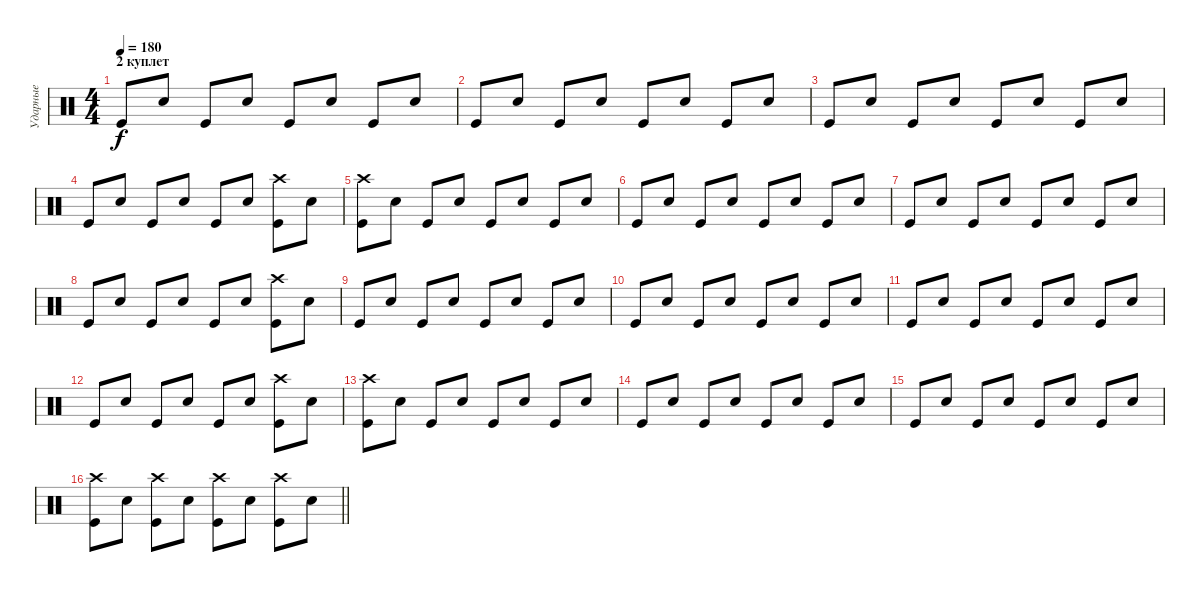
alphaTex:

\track ("Ударные" "Ударные") {instrument percussion}
\staff {score}
\articulation defaults
\ts (4 4)
\section ("" "2 куплет")
\tempo 180
\clef neutral
\ks c "Kick (hit)".8{dy f} "Snare (hit) 2".8 "Kick (hit)".8 "Snare (hit) 2".8 "Kick (hit)".8 "Snare (hit) 2".8 "Kick (hit)".8 "Snare (hit) 2".8
|
"Kick (hit)".8 "Snare (hit) 2".8 "Kick (hit)".8 "Snare (hit) 2".8 "Kick (hit)".8 "Snare (hit) 2".8 "Kick (hit)".8 "Snare (hit) 2".8 |
"Kick (hit)".8 "Snare (hit) 2".8 "Kick (hit)".8 "Snare (hit) 2".8 "Kick (hit)".8 "Snare (hit) 2".8 "Kick (hit)".8 "Snare (hit) 2".8 |
"Kick (hit)".8 "Snare (hit) 2".8 "Kick (hit)".8 "Snare (hit) 2".8 "Kick (hit)".8 "Snare (hit) 2".8 ("Crash high (hit)" "Kick (hit)").8 "Snare (hit) 2".8 |
("Crash high (hit)" "Kick (hit)").8 "Snare (hit) 2".8 "Kick (hit)".8 "Snare (hit) 2".8 "Kick (hit)".8 "Snare (hit) 2".8 "Kick (hit)".8 "Snare (hit) 2".8 |
"Kick (hit)".8 "Snare (hit) 2".8 "Kick (hit)".8 "Snare (hit) 2".8 "Kick (hit)".8 "Snare (hit) 2".8 "Kick (hit)".8 "Snare (hit) 2".8 |
"Kick (hit)".8 "Snare (hit) 2".8 "Kick (hit)".8 "Snare (hit) 2".8 "Kick (hit)".8 "Snare (hit) 2".8 "Kick (hit)".8 "Snare (hit) 2".8 |
"Kick (hit)".8 "Snare (hit) 2".8 "Kick (hit)".8 "Snare (hit) 2".8 "Kick (hit)".8 "Snare (hit) 2".8 ("Crash high (hit)" "Kick (hit)").8 "Snare (hit) 2".8 |
"Kick (hit)".8 "Snare (hit) 2".8 "Kick (hit)".8 "Snare (hit) 2".8 "Kick (hit)".8 "Snare (hit) 2".8 "Kick (hit)".8 "Snare (hit) 2".8 |
"Kick (hit)".8 "Snare (hit) 2".8 "Kick (hit)".8 "Snare (hit) 2".8 "Kick (hit)".8 "Snare (hit) 2".8 "Kick (hit)".8 "Snare (hit) 2".8 |
"Kick (hit)".8 "Snare (hit) 2".8 "Kick (hit)".8 "Snare (hit) 2".8 "Kick (hit)".8 "Snare (hit) 2".8 "Kick (hit)".8 "Snare (hit) 2".8 |
"Kick (hit)".8 "Snare (hit) 2".8 "Kick (hit)".8 "Snare (hit) 2".8 "Kick (hit)".8 "Snare (hit) 2".8 ("Crash high (hit)" "Kick (hit)").8 "Snare (hit) 2".8 |
("Crash high (hit)" "Kick (hit)").8 "Snare (hit) 2".8 "Kick (hit)".8 "Snare (hit) 2".8 "Kick (hit)".8 "Snare (hit) 2".8 "Kick (hit)".8 "Snare (hit) 2".8 |
"Kick (hit)".8 "Snare (hit) 2".8 "Kick (hit)".8 "Snare (hit) 2".8 "Kick (hit)".8 "Snare (hit) 2".8 "Kick (hit)".8 "Snare (hit) 2".8 |
"Kick (hit)".8 "Snare (hit) 2".8 "Kick (hit)".8 "Snare (hit) 2".8 "Kick (hit)".8 "Snare (hit) 2".8 "Kick (hit)".8 "Snare (hit) 2".8 |
\barLineRight lightlight
("Crash high (hit)" "Kick (hit)").8 "Snare (hit) 2".8 ("Crash high (hit)" "Kick (hit)").8 "Snare (hit) 2".8 ("Crash high (hit)" "Kick (hit)").8 "Snare (hit) 2".8 ("Crash high (hit)" "Kick (hit)").8 "Snare (hit) 2".8
